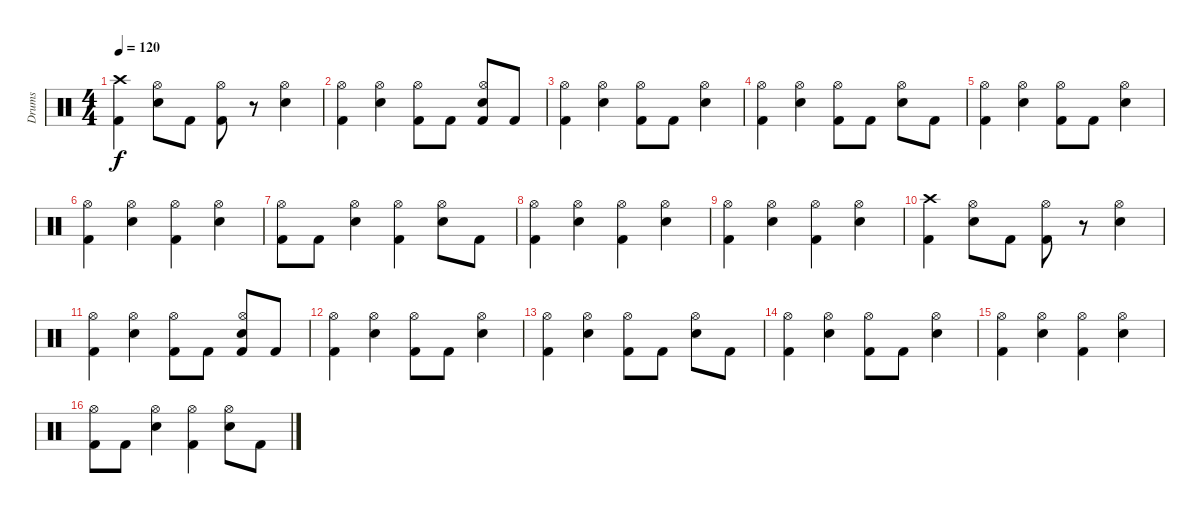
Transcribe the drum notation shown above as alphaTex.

\track ("Drums" "Drums") {instrument percussion}
\staff {score}
\articulation defaults
\ts (4 4)
\tempo 120
\clef neutral
\ks c
("Crash high (hit)" "Kick (hit) 2").4{dy f} ("Hi-Hat (open)" "Electric Snare (hit)").8 "Kick (hit) 2".8 ("Hi-Hat (open)" "Kick (hit) 2").8 r.8 ("Hi-Hat (open)" "Electric Snare (hit)").4 |
("Hi-Hat (open)" "Kick (hit) 2").4 ("Hi-Hat (open)" "Electric Snare (hit)").4 ("Hi-Hat (open)" "Kick (hit) 2").8 "Kick (hit) 2".8 ("Hi-Hat (open)" "Electric Snare (hit)" "Kick (hit) 2").8 "Kick (hit) 2".8 |
("Hi-Hat (open)" "Kick (hit) 2").4 ("Hi-Hat (open)" "Electric Snare (hit)").4 ("Hi-Hat (open)" "Kick (hit) 2").8 "Kick (hit) 2".8 ("Hi-Hat (open)" "Electric Snare (hit)").4 |
("Hi-Hat (open)" "Kick (hit) 2").4 ("Hi-Hat (open)" "Electric Snare (hit)").4 ("Hi-Hat (open)" "Kick (hit) 2").8 "Kick (hit) 2".8 ("Hi-Hat (open)" "Electric Snare (hit)").8 "Kick (hit) 2".8 |
("Hi-Hat (open)" "Kick (hit) 2").4 ("Hi-Hat (open)" "Electric Snare (hit)").4 ("Hi-Hat (open)" "Kick (hit) 2").8 "Kick (hit) 2".8 ("Hi-Hat (open)" "Electric Snare (hit)").4 |
("Hi-Hat (open)" "Kick (hit) 2").4 ("Hi-Hat (open)" "Electric Snare (hit)").4 ("Hi-Hat (open)" "Kick (hit) 2").4 ("Hi-Hat (open)" "Electric Snare (hit)").4 |
("Hi-Hat (open)" "Kick (hit) 2").8 "Kick (hit) 2".8 ("Hi-Hat (open)" "Electric Snare (hit)").4 ("Hi-Hat (open)" "Kick (hit) 2").4 ("Hi-Hat (open)" "Electric Snare (hit)").8 "Kick (hit) 2".8 |
("Hi-Hat (open)" "Kick (hit) 2").4 ("Hi-Hat (open)" "Electric Snare (hit)").4 ("Hi-Hat (open)" "Kick (hit) 2").4 ("Hi-Hat (open)" "Electric Snare (hit)").4 |
("Hi-Hat (open)" "Kick (hit) 2").4 ("Hi-Hat (open)" "Electric Snare (hit)").4 ("Hi-Hat (open)" "Kick (hit) 2").4 ("Hi-Hat (open)" "Electric Snare (hit)").4 |
("Crash high (hit)" "Kick (hit) 2").4 ("Hi-Hat (open)" "Electric Snare (hit)").8 "Kick (hit) 2".8 ("Hi-Hat (open)" "Kick (hit) 2").8 r.8 ("Hi-Hat (open)" "Electric Snare (hit)").4 |
("Hi-Hat (open)" "Kick (hit) 2").4 ("Hi-Hat (open)" "Electric Snare (hit)").4 ("Hi-Hat (open)" "Kick (hit) 2").8 "Kick (hit) 2".8 ("Hi-Hat (open)" "Electric Snare (hit)" "Kick (hit) 2").8 "Kick (hit) 2".8 |
("Hi-Hat (open)" "Kick (hit) 2").4 ("Hi-Hat (open)" "Electric Snare (hit)").4 ("Hi-Hat (open)" "Kick (hit) 2").8 "Kick (hit) 2".8 ("Hi-Hat (open)" "Electric Snare (hit)").4 |
("Hi-Hat (open)" "Kick (hit) 2").4 ("Hi-Hat (open)" "Electric Snare (hit)").4 ("Hi-Hat (open)" "Kick (hit) 2").8 "Kick (hit) 2".8 ("Hi-Hat (open)" "Electric Snare (hit)").8 "Kick (hit) 2".8 |
("Hi-Hat (open)" "Kick (hit) 2").4 ("Hi-Hat (open)" "Electric Snare (hit)").4 ("Hi-Hat (open)" "Kick (hit) 2").8 "Kick (hit) 2".8 ("Hi-Hat (open)" "Electric Snare (hit)").4 |
("Hi-Hat (open)" "Kick (hit) 2").4 ("Hi-Hat (open)" "Electric Snare (hit)").4 ("Hi-Hat (open)" "Kick (hit) 2").4 ("Hi-Hat (open)" "Electric Snare (hit)").4 |
("Hi-Hat (open)" "Kick (hit) 2").8 "Kick (hit) 2".8 ("Hi-Hat (open)" "Electric Snare (hit)").4 ("Hi-Hat (open)" "Kick (hit) 2").4 ("Hi-Hat (open)" "Electric Snare (hit)").8 "Kick (hit) 2".8
